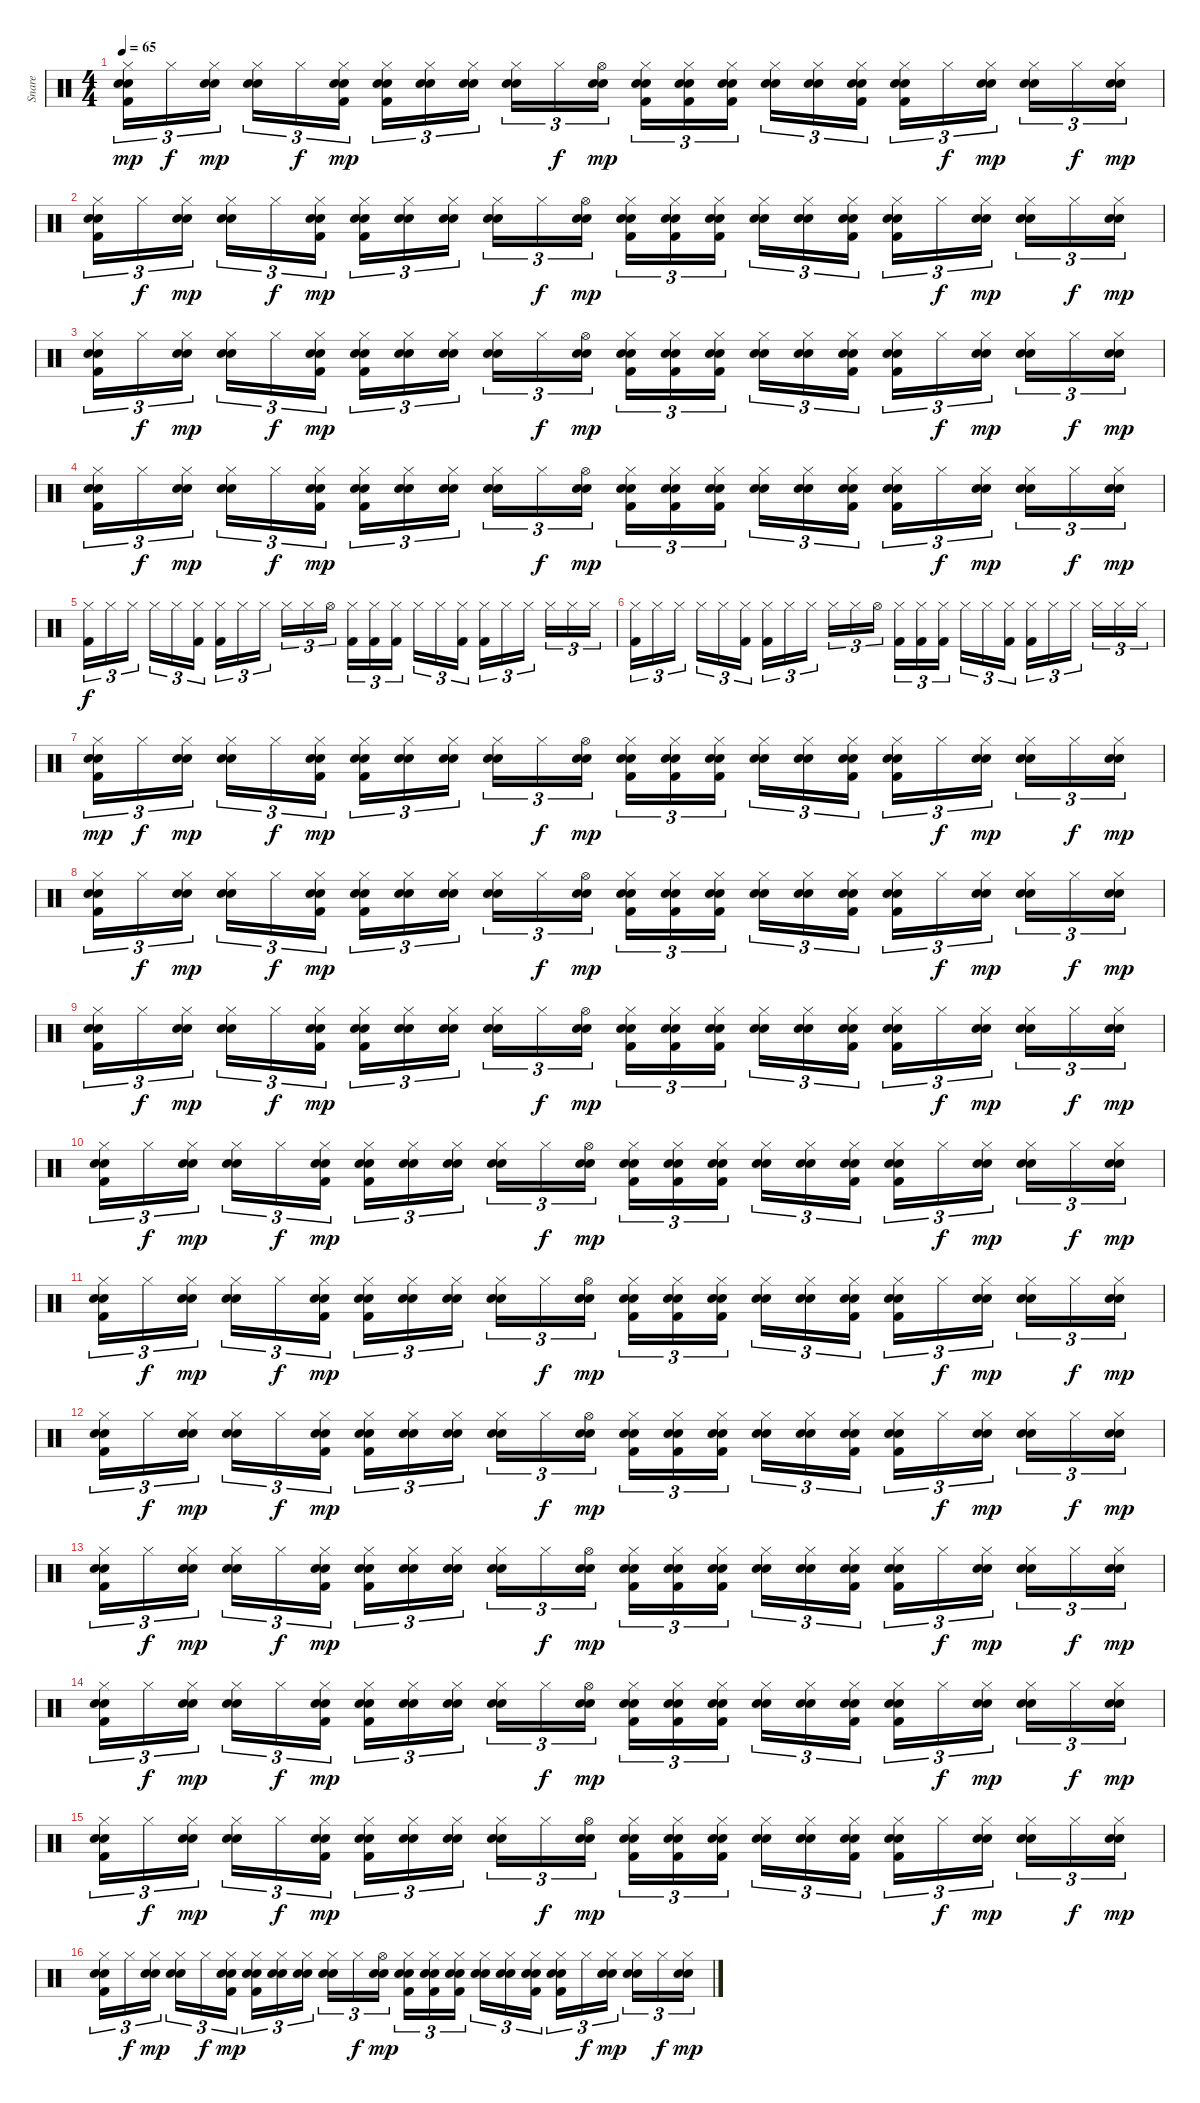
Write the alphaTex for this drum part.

\track ("Snare" "Snare") {instrument percussion}
\staff {score}
\articulation defaults
\ts (4 4)
\tempo 65
\clef neutral
\ks c
("Hi-Hat (closed)" "Snare (hit) 2" "Electric Snare (hit)" "Kick (hit) 2").16{tu (3 2) dy mp} "Hi-Hat (closed)".16{tu (3 2) dy f} ("Hi-Hat (closed)" "Snare (hit) 2" "Electric Snare (hit)").16{tu (3 2) dy mp} ("Hi-Hat (closed)" "Snare (hit) 2" "Electric Snare (hit)").16{tu (3 2)} "Hi-Hat (closed)".16{tu (3 2) dy f} ("Hi-Hat (closed)" "Snare (hit) 2" "Electric Snare (hit)" "Kick (hit) 2").16{tu (3 2) dy mp} ("Hi-Hat (closed)" "Snare (hit) 2" "Electric Snare (hit)" "Kick (hit) 2").16{tu (3 2)} ("Hi-Hat (closed)" "Snare (hit) 2" "Electric Snare (hit)").16{tu (3 2)} ("Hi-Hat (closed)" "Snare (hit) 2" "Electric Snare (hit)").16{tu (3 2)} ("Hi-Hat (closed)" "Snare (hit) 2" "Electric Snare (hit)").16{tu (3 2)} "Hi-Hat (closed)".16{tu (3 2) dy f} ("Hi-Hat (open)" "Snare (hit) 2" "Electric Snare (hit)").16{tu (3 2) dy mp} ("Hi-Hat (closed)" "Snare (hit) 2" "Electric Snare (hit)" "Kick (hit) 2").16{tu (3 2)} ("Hi-Hat (closed)" "Snare (hit) 2" "Electric Snare (hit)" "Kick (hit) 2").16{tu (3 2)} ("Hi-Hat (closed)" "Snare (hit) 2" "Electric Snare (hit)" "Kick (hit) 2").16{tu (3 2)} ("Hi-Hat (closed)" "Snare (hit) 2" "Electric Snare (hit)").16{tu (3 2)} ("Hi-Hat (closed)" "Snare (hit) 2" "Electric Snare (hit)").16{tu (3 2)} ("Hi-Hat (closed)" "Snare (hit) 2" "Electric Snare (hit)" "Kick (hit) 2").16{tu (3 2)} ("Hi-Hat (closed)" "Snare (hit) 2" "Electric Snare (hit)" "Kick (hit) 2").16{tu (3 2)} "Hi-Hat (closed)".16{tu (3 2) dy f} ("Hi-Hat (closed)" "Snare (hit) 2" "Electric Snare (hit)").16{tu (3 2) dy mp} ("Hi-Hat (closed)" "Snare (hit) 2" "Electric Snare (hit)").16{tu (3 2)} "Hi-Hat (closed)".16{tu (3 2) dy f} ("Hi-Hat (closed)" "Snare (hit) 2" "Electric Snare (hit)").16{tu (3 2) dy mp} |
("Hi-Hat (closed)" "Snare (hit) 2" "Electric Snare (hit)" "Kick (hit) 2").16{tu (3 2)} "Hi-Hat (closed)".16{tu (3 2) dy f} ("Hi-Hat (closed)" "Snare (hit) 2" "Electric Snare (hit)").16{tu (3 2) dy mp} ("Hi-Hat (closed)" "Snare (hit) 2" "Electric Snare (hit)").16{tu (3 2)} "Hi-Hat (closed)".16{tu (3 2) dy f} ("Hi-Hat (closed)" "Snare (hit) 2" "Electric Snare (hit)" "Kick (hit) 2").16{tu (3 2) dy mp} ("Hi-Hat (closed)" "Snare (hit) 2" "Electric Snare (hit)" "Kick (hit) 2").16{tu (3 2)} ("Hi-Hat (closed)" "Snare (hit) 2" "Electric Snare (hit)").16{tu (3 2)} ("Hi-Hat (closed)" "Snare (hit) 2" "Electric Snare (hit)").16{tu (3 2)} ("Hi-Hat (closed)" "Snare (hit) 2" "Electric Snare (hit)").16{tu (3 2)} "Hi-Hat (closed)".16{tu (3 2) dy f} ("Hi-Hat (open)" "Snare (hit) 2" "Electric Snare (hit)").16{tu (3 2) dy mp} ("Hi-Hat (closed)" "Snare (hit) 2" "Electric Snare (hit)" "Kick (hit) 2").16{tu (3 2)} ("Hi-Hat (closed)" "Snare (hit) 2" "Electric Snare (hit)" "Kick (hit) 2").16{tu (3 2)} ("Hi-Hat (closed)" "Snare (hit) 2" "Electric Snare (hit)" "Kick (hit) 2").16{tu (3 2)} ("Hi-Hat (closed)" "Snare (hit) 2" "Electric Snare (hit)").16{tu (3 2)} ("Hi-Hat (closed)" "Snare (hit) 2" "Electric Snare (hit)").16{tu (3 2)} ("Hi-Hat (closed)" "Snare (hit) 2" "Electric Snare (hit)" "Kick (hit) 2").16{tu (3 2)} ("Hi-Hat (closed)" "Snare (hit) 2" "Electric Snare (hit)" "Kick (hit) 2").16{tu (3 2)} "Hi-Hat (closed)".16{tu (3 2) dy f} ("Hi-Hat (closed)" "Snare (hit) 2" "Electric Snare (hit)").16{tu (3 2) dy mp} ("Hi-Hat (closed)" "Snare (hit) 2" "Electric Snare (hit)").16{tu (3 2)} "Hi-Hat (closed)".16{tu (3 2) dy f} ("Hi-Hat (closed)" "Snare (hit) 2" "Electric Snare (hit)").16{tu (3 2) dy mp} |
("Hi-Hat (closed)" "Snare (hit) 2" "Electric Snare (hit)" "Kick (hit) 2").16{tu (3 2)} "Hi-Hat (closed)".16{tu (3 2) dy f} ("Hi-Hat (closed)" "Snare (hit) 2" "Electric Snare (hit)").16{tu (3 2) dy mp} ("Hi-Hat (closed)" "Snare (hit) 2" "Electric Snare (hit)").16{tu (3 2)} "Hi-Hat (closed)".16{tu (3 2) dy f} ("Hi-Hat (closed)" "Snare (hit) 2" "Electric Snare (hit)" "Kick (hit) 2").16{tu (3 2) dy mp} ("Hi-Hat (closed)" "Snare (hit) 2" "Electric Snare (hit)" "Kick (hit) 2").16{tu (3 2)} ("Hi-Hat (closed)" "Snare (hit) 2" "Electric Snare (hit)").16{tu (3 2)} ("Hi-Hat (closed)" "Snare (hit) 2" "Electric Snare (hit)").16{tu (3 2)} ("Hi-Hat (closed)" "Snare (hit) 2" "Electric Snare (hit)").16{tu (3 2)} "Hi-Hat (closed)".16{tu (3 2) dy f} ("Hi-Hat (open)" "Snare (hit) 2" "Electric Snare (hit)").16{tu (3 2) dy mp} ("Hi-Hat (closed)" "Snare (hit) 2" "Electric Snare (hit)" "Kick (hit) 2").16{tu (3 2)} ("Hi-Hat (closed)" "Snare (hit) 2" "Electric Snare (hit)" "Kick (hit) 2").16{tu (3 2)} ("Hi-Hat (closed)" "Snare (hit) 2" "Electric Snare (hit)" "Kick (hit) 2").16{tu (3 2)} ("Hi-Hat (closed)" "Snare (hit) 2" "Electric Snare (hit)").16{tu (3 2)} ("Hi-Hat (closed)" "Snare (hit) 2" "Electric Snare (hit)").16{tu (3 2)} ("Hi-Hat (closed)" "Snare (hit) 2" "Electric Snare (hit)" "Kick (hit) 2").16{tu (3 2)} ("Hi-Hat (closed)" "Snare (hit) 2" "Electric Snare (hit)" "Kick (hit) 2").16{tu (3 2)} "Hi-Hat (closed)".16{tu (3 2) dy f} ("Hi-Hat (closed)" "Snare (hit) 2" "Electric Snare (hit)").16{tu (3 2) dy mp} ("Hi-Hat (closed)" "Snare (hit) 2" "Electric Snare (hit)").16{tu (3 2)} "Hi-Hat (closed)".16{tu (3 2) dy f} ("Hi-Hat (closed)" "Snare (hit) 2" "Electric Snare (hit)").16{tu (3 2) dy mp} |
("Hi-Hat (closed)" "Snare (hit) 2" "Electric Snare (hit)" "Kick (hit) 2").16{tu (3 2)} "Hi-Hat (closed)".16{tu (3 2) dy f} ("Hi-Hat (closed)" "Snare (hit) 2" "Electric Snare (hit)").16{tu (3 2) dy mp} ("Hi-Hat (closed)" "Snare (hit) 2" "Electric Snare (hit)").16{tu (3 2)} "Hi-Hat (closed)".16{tu (3 2) dy f} ("Hi-Hat (closed)" "Snare (hit) 2" "Electric Snare (hit)" "Kick (hit) 2").16{tu (3 2) dy mp} ("Hi-Hat (closed)" "Snare (hit) 2" "Electric Snare (hit)" "Kick (hit) 2").16{tu (3 2)} ("Hi-Hat (closed)" "Snare (hit) 2" "Electric Snare (hit)").16{tu (3 2)} ("Hi-Hat (closed)" "Snare (hit) 2" "Electric Snare (hit)").16{tu (3 2)} ("Hi-Hat (closed)" "Snare (hit) 2" "Electric Snare (hit)").16{tu (3 2)} "Hi-Hat (closed)".16{tu (3 2) dy f} ("Hi-Hat (open)" "Snare (hit) 2" "Electric Snare (hit)").16{tu (3 2) dy mp} ("Hi-Hat (closed)" "Snare (hit) 2" "Electric Snare (hit)" "Kick (hit) 2").16{tu (3 2)} ("Hi-Hat (closed)" "Snare (hit) 2" "Electric Snare (hit)" "Kick (hit) 2").16{tu (3 2)} ("Hi-Hat (closed)" "Snare (hit) 2" "Electric Snare (hit)" "Kick (hit) 2").16{tu (3 2)} ("Hi-Hat (closed)" "Snare (hit) 2" "Electric Snare (hit)").16{tu (3 2)} ("Hi-Hat (closed)" "Snare (hit) 2" "Electric Snare (hit)").16{tu (3 2)} ("Hi-Hat (closed)" "Snare (hit) 2" "Electric Snare (hit)" "Kick (hit) 2").16{tu (3 2)} ("Hi-Hat (closed)" "Snare (hit) 2" "Electric Snare (hit)" "Kick (hit) 2").16{tu (3 2)} "Hi-Hat (closed)".16{tu (3 2) dy f} ("Hi-Hat (closed)" "Snare (hit) 2" "Electric Snare (hit)").16{tu (3 2) dy mp} ("Hi-Hat (closed)" "Snare (hit) 2" "Electric Snare (hit)").16{tu (3 2)} "Hi-Hat (closed)".16{tu (3 2) dy f} ("Hi-Hat (closed)" "Snare (hit) 2" "Electric Snare (hit)").16{tu (3 2) dy mp} |
("Hi-Hat (closed)" "Kick (hit) 2").16{tu (3 2) dy f} "Hi-Hat (closed)".16{tu (3 2)} "Hi-Hat (closed)".16{tu (3 2)} "Hi-Hat (closed)".16{tu (3 2)} "Hi-Hat (closed)".16{tu (3 2)} ("Hi-Hat (closed)" "Kick (hit) 2").16{tu (3 2)} ("Hi-Hat (closed)" "Kick (hit) 2").16{tu (3 2)} "Hi-Hat (closed)".16{tu (3 2)} "Hi-Hat (closed)".16{tu (3 2)} "Hi-Hat (closed)".16{tu (3 2)} "Hi-Hat (closed)".16{tu (3 2)} "Hi-Hat (open)".16{tu (3 2)} ("Hi-Hat (closed)" "Kick (hit) 2").16{tu (3 2)} ("Hi-Hat (closed)" "Kick (hit) 2").16{tu (3 2)} ("Hi-Hat (closed)" "Kick (hit) 2").16{tu (3 2)} "Hi-Hat (closed)".16{tu (3 2)} "Hi-Hat (closed)".16{tu (3 2)} ("Hi-Hat (closed)" "Kick (hit) 2").16{tu (3 2)} ("Hi-Hat (closed)" "Kick (hit) 2").16{tu (3 2)} "Hi-Hat (closed)".16{tu (3 2)} "Hi-Hat (closed)".16{tu (3 2)} "Hi-Hat (closed)".16{tu (3 2)} "Hi-Hat (closed)".16{tu (3 2)} "Hi-Hat (closed)".16{tu (3 2)} |
("Hi-Hat (closed)" "Kick (hit) 2").16{tu (3 2)} "Hi-Hat (closed)".16{tu (3 2)} "Hi-Hat (closed)".16{tu (3 2)} "Hi-Hat (closed)".16{tu (3 2)} "Hi-Hat (closed)".16{tu (3 2)} ("Hi-Hat (closed)" "Kick (hit) 2").16{tu (3 2)} ("Hi-Hat (closed)" "Kick (hit) 2").16{tu (3 2)} "Hi-Hat (closed)".16{tu (3 2)} "Hi-Hat (closed)".16{tu (3 2)} "Hi-Hat (closed)".16{tu (3 2)} "Hi-Hat (closed)".16{tu (3 2)} "Hi-Hat (open)".16{tu (3 2)} ("Hi-Hat (closed)" "Kick (hit) 2").16{tu (3 2)} ("Hi-Hat (closed)" "Kick (hit) 2").16{tu (3 2)} ("Hi-Hat (closed)" "Kick (hit) 2").16{tu (3 2)} "Hi-Hat (closed)".16{tu (3 2)} "Hi-Hat (closed)".16{tu (3 2)} ("Hi-Hat (closed)" "Kick (hit) 2").16{tu (3 2)} ("Hi-Hat (closed)" "Kick (hit) 2").16{tu (3 2)} "Hi-Hat (closed)".16{tu (3 2)} "Hi-Hat (closed)".16{tu (3 2)} "Hi-Hat (closed)".16{tu (3 2)} "Hi-Hat (closed)".16{tu (3 2)} "Hi-Hat (closed)".16{tu (3 2)} |
("Hi-Hat (closed)" "Snare (hit) 2" "Electric Snare (hit)" "Kick (hit) 2").16{tu (3 2) dy mp} "Hi-Hat (closed)".16{tu (3 2) dy f} ("Hi-Hat (closed)" "Snare (hit) 2" "Electric Snare (hit)").16{tu (3 2) dy mp} ("Hi-Hat (closed)" "Snare (hit) 2" "Electric Snare (hit)").16{tu (3 2)} "Hi-Hat (closed)".16{tu (3 2) dy f} ("Hi-Hat (closed)" "Snare (hit) 2" "Electric Snare (hit)" "Kick (hit) 2").16{tu (3 2) dy mp} ("Hi-Hat (closed)" "Snare (hit) 2" "Electric Snare (hit)" "Kick (hit) 2").16{tu (3 2)} ("Hi-Hat (closed)" "Snare (hit) 2" "Electric Snare (hit)").16{tu (3 2)} ("Hi-Hat (closed)" "Snare (hit) 2" "Electric Snare (hit)").16{tu (3 2)} ("Hi-Hat (closed)" "Snare (hit) 2" "Electric Snare (hit)").16{tu (3 2)} "Hi-Hat (closed)".16{tu (3 2) dy f} ("Hi-Hat (open)" "Snare (hit) 2" "Electric Snare (hit)").16{tu (3 2) dy mp} ("Hi-Hat (closed)" "Snare (hit) 2" "Electric Snare (hit)" "Kick (hit) 2").16{tu (3 2)} ("Hi-Hat (closed)" "Snare (hit) 2" "Electric Snare (hit)" "Kick (hit) 2").16{tu (3 2)} ("Hi-Hat (closed)" "Snare (hit) 2" "Electric Snare (hit)" "Kick (hit) 2").16{tu (3 2)} ("Hi-Hat (closed)" "Snare (hit) 2" "Electric Snare (hit)").16{tu (3 2)} ("Hi-Hat (closed)" "Snare (hit) 2" "Electric Snare (hit)").16{tu (3 2)} ("Hi-Hat (closed)" "Snare (hit) 2" "Electric Snare (hit)" "Kick (hit) 2").16{tu (3 2)} ("Hi-Hat (closed)" "Snare (hit) 2" "Electric Snare (hit)" "Kick (hit) 2").16{tu (3 2)} "Hi-Hat (closed)".16{tu (3 2) dy f} ("Hi-Hat (closed)" "Snare (hit) 2" "Electric Snare (hit)").16{tu (3 2) dy mp} ("Hi-Hat (closed)" "Snare (hit) 2" "Electric Snare (hit)").16{tu (3 2)} "Hi-Hat (closed)".16{tu (3 2) dy f} ("Hi-Hat (closed)" "Snare (hit) 2" "Electric Snare (hit)").16{tu (3 2) dy mp} |
("Hi-Hat (closed)" "Snare (hit) 2" "Electric Snare (hit)" "Kick (hit) 2").16{tu (3 2)} "Hi-Hat (closed)".16{tu (3 2) dy f} ("Hi-Hat (closed)" "Snare (hit) 2" "Electric Snare (hit)").16{tu (3 2) dy mp} ("Hi-Hat (closed)" "Snare (hit) 2" "Electric Snare (hit)").16{tu (3 2)} "Hi-Hat (closed)".16{tu (3 2) dy f} ("Hi-Hat (closed)" "Snare (hit) 2" "Electric Snare (hit)" "Kick (hit) 2").16{tu (3 2) dy mp} ("Hi-Hat (closed)" "Snare (hit) 2" "Electric Snare (hit)" "Kick (hit) 2").16{tu (3 2)} ("Hi-Hat (closed)" "Snare (hit) 2" "Electric Snare (hit)").16{tu (3 2)} ("Hi-Hat (closed)" "Snare (hit) 2" "Electric Snare (hit)").16{tu (3 2)} ("Hi-Hat (closed)" "Snare (hit) 2" "Electric Snare (hit)").16{tu (3 2)} "Hi-Hat (closed)".16{tu (3 2) dy f} ("Hi-Hat (open)" "Snare (hit) 2" "Electric Snare (hit)").16{tu (3 2) dy mp} ("Hi-Hat (closed)" "Snare (hit) 2" "Electric Snare (hit)" "Kick (hit) 2").16{tu (3 2)} ("Hi-Hat (closed)" "Snare (hit) 2" "Electric Snare (hit)" "Kick (hit) 2").16{tu (3 2)} ("Hi-Hat (closed)" "Snare (hit) 2" "Electric Snare (hit)" "Kick (hit) 2").16{tu (3 2)} ("Hi-Hat (closed)" "Snare (hit) 2" "Electric Snare (hit)").16{tu (3 2)} ("Hi-Hat (closed)" "Snare (hit) 2" "Electric Snare (hit)").16{tu (3 2)} ("Hi-Hat (closed)" "Snare (hit) 2" "Electric Snare (hit)" "Kick (hit) 2").16{tu (3 2)} ("Hi-Hat (closed)" "Snare (hit) 2" "Electric Snare (hit)" "Kick (hit) 2").16{tu (3 2)} "Hi-Hat (closed)".16{tu (3 2) dy f} ("Hi-Hat (closed)" "Snare (hit) 2" "Electric Snare (hit)").16{tu (3 2) dy mp} ("Hi-Hat (closed)" "Snare (hit) 2" "Electric Snare (hit)").16{tu (3 2)} "Hi-Hat (closed)".16{tu (3 2) dy f} ("Hi-Hat (closed)" "Snare (hit) 2" "Electric Snare (hit)").16{tu (3 2) dy mp} |
("Hi-Hat (closed)" "Snare (hit) 2" "Electric Snare (hit)" "Kick (hit) 2").16{tu (3 2)} "Hi-Hat (closed)".16{tu (3 2) dy f} ("Hi-Hat (closed)" "Snare (hit) 2" "Electric Snare (hit)").16{tu (3 2) dy mp} ("Hi-Hat (closed)" "Snare (hit) 2" "Electric Snare (hit)").16{tu (3 2)} "Hi-Hat (closed)".16{tu (3 2) dy f} ("Hi-Hat (closed)" "Snare (hit) 2" "Electric Snare (hit)" "Kick (hit) 2").16{tu (3 2) dy mp} ("Hi-Hat (closed)" "Snare (hit) 2" "Electric Snare (hit)" "Kick (hit) 2").16{tu (3 2)} ("Hi-Hat (closed)" "Snare (hit) 2" "Electric Snare (hit)").16{tu (3 2)} ("Hi-Hat (closed)" "Snare (hit) 2" "Electric Snare (hit)").16{tu (3 2)} ("Hi-Hat (closed)" "Snare (hit) 2" "Electric Snare (hit)").16{tu (3 2)} "Hi-Hat (closed)".16{tu (3 2) dy f} ("Hi-Hat (open)" "Snare (hit) 2" "Electric Snare (hit)").16{tu (3 2) dy mp} ("Hi-Hat (closed)" "Snare (hit) 2" "Electric Snare (hit)" "Kick (hit) 2").16{tu (3 2)} ("Hi-Hat (closed)" "Snare (hit) 2" "Electric Snare (hit)" "Kick (hit) 2").16{tu (3 2)} ("Hi-Hat (closed)" "Snare (hit) 2" "Electric Snare (hit)" "Kick (hit) 2").16{tu (3 2)} ("Hi-Hat (closed)" "Snare (hit) 2" "Electric Snare (hit)").16{tu (3 2)} ("Hi-Hat (closed)" "Snare (hit) 2" "Electric Snare (hit)").16{tu (3 2)} ("Hi-Hat (closed)" "Snare (hit) 2" "Electric Snare (hit)" "Kick (hit) 2").16{tu (3 2)} ("Hi-Hat (closed)" "Snare (hit) 2" "Electric Snare (hit)" "Kick (hit) 2").16{tu (3 2)} "Hi-Hat (closed)".16{tu (3 2) dy f} ("Hi-Hat (closed)" "Snare (hit) 2" "Electric Snare (hit)").16{tu (3 2) dy mp} ("Hi-Hat (closed)" "Snare (hit) 2" "Electric Snare (hit)").16{tu (3 2)} "Hi-Hat (closed)".16{tu (3 2) dy f} ("Hi-Hat (closed)" "Snare (hit) 2" "Electric Snare (hit)").16{tu (3 2) dy mp} |
("Hi-Hat (closed)" "Snare (hit) 2" "Electric Snare (hit)" "Kick (hit) 2").16{tu (3 2)} "Hi-Hat (closed)".16{tu (3 2) dy f} ("Hi-Hat (closed)" "Snare (hit) 2" "Electric Snare (hit)").16{tu (3 2) dy mp} ("Hi-Hat (closed)" "Snare (hit) 2" "Electric Snare (hit)").16{tu (3 2)} "Hi-Hat (closed)".16{tu (3 2) dy f} ("Hi-Hat (closed)" "Snare (hit) 2" "Electric Snare (hit)" "Kick (hit) 2").16{tu (3 2) dy mp} ("Hi-Hat (closed)" "Snare (hit) 2" "Electric Snare (hit)" "Kick (hit) 2").16{tu (3 2)} ("Hi-Hat (closed)" "Snare (hit) 2" "Electric Snare (hit)").16{tu (3 2)} ("Hi-Hat (closed)" "Snare (hit) 2" "Electric Snare (hit)").16{tu (3 2)} ("Hi-Hat (closed)" "Snare (hit) 2" "Electric Snare (hit)").16{tu (3 2)} "Hi-Hat (closed)".16{tu (3 2) dy f} ("Hi-Hat (open)" "Snare (hit) 2" "Electric Snare (hit)").16{tu (3 2) dy mp} ("Hi-Hat (closed)" "Snare (hit) 2" "Electric Snare (hit)" "Kick (hit) 2").16{tu (3 2)} ("Hi-Hat (closed)" "Snare (hit) 2" "Electric Snare (hit)" "Kick (hit) 2").16{tu (3 2)} ("Hi-Hat (closed)" "Snare (hit) 2" "Electric Snare (hit)" "Kick (hit) 2").16{tu (3 2)} ("Hi-Hat (closed)" "Snare (hit) 2" "Electric Snare (hit)").16{tu (3 2)} ("Hi-Hat (closed)" "Snare (hit) 2" "Electric Snare (hit)").16{tu (3 2)} ("Hi-Hat (closed)" "Snare (hit) 2" "Electric Snare (hit)" "Kick (hit) 2").16{tu (3 2)} ("Hi-Hat (closed)" "Snare (hit) 2" "Electric Snare (hit)" "Kick (hit) 2").16{tu (3 2)} "Hi-Hat (closed)".16{tu (3 2) dy f} ("Hi-Hat (closed)" "Snare (hit) 2" "Electric Snare (hit)").16{tu (3 2) dy mp} ("Hi-Hat (closed)" "Snare (hit) 2" "Electric Snare (hit)").16{tu (3 2)} "Hi-Hat (closed)".16{tu (3 2) dy f} ("Hi-Hat (closed)" "Snare (hit) 2" "Electric Snare (hit)").16{tu (3 2) dy mp} |
("Hi-Hat (closed)" "Snare (hit) 2" "Electric Snare (hit)" "Kick (hit) 2").16{tu (3 2)} "Hi-Hat (closed)".16{tu (3 2) dy f} ("Hi-Hat (closed)" "Snare (hit) 2" "Electric Snare (hit)").16{tu (3 2) dy mp} ("Hi-Hat (closed)" "Snare (hit) 2" "Electric Snare (hit)").16{tu (3 2)} "Hi-Hat (closed)".16{tu (3 2) dy f} ("Hi-Hat (closed)" "Snare (hit) 2" "Electric Snare (hit)" "Kick (hit) 2").16{tu (3 2) dy mp} ("Hi-Hat (closed)" "Snare (hit) 2" "Electric Snare (hit)" "Kick (hit) 2").16{tu (3 2)} ("Hi-Hat (closed)" "Snare (hit) 2" "Electric Snare (hit)").16{tu (3 2)} ("Hi-Hat (closed)" "Snare (hit) 2" "Electric Snare (hit)").16{tu (3 2)} ("Hi-Hat (closed)" "Snare (hit) 2" "Electric Snare (hit)").16{tu (3 2)} "Hi-Hat (closed)".16{tu (3 2) dy f} ("Hi-Hat (open)" "Snare (hit) 2" "Electric Snare (hit)").16{tu (3 2) dy mp} ("Hi-Hat (closed)" "Snare (hit) 2" "Electric Snare (hit)" "Kick (hit) 2").16{tu (3 2)} ("Hi-Hat (closed)" "Snare (hit) 2" "Electric Snare (hit)" "Kick (hit) 2").16{tu (3 2)} ("Hi-Hat (closed)" "Snare (hit) 2" "Electric Snare (hit)" "Kick (hit) 2").16{tu (3 2)} ("Hi-Hat (closed)" "Snare (hit) 2" "Electric Snare (hit)").16{tu (3 2)} ("Hi-Hat (closed)" "Snare (hit) 2" "Electric Snare (hit)").16{tu (3 2)} ("Hi-Hat (closed)" "Snare (hit) 2" "Electric Snare (hit)" "Kick (hit) 2").16{tu (3 2)} ("Hi-Hat (closed)" "Snare (hit) 2" "Electric Snare (hit)" "Kick (hit) 2").16{tu (3 2)} "Hi-Hat (closed)".16{tu (3 2) dy f} ("Hi-Hat (closed)" "Snare (hit) 2" "Electric Snare (hit)").16{tu (3 2) dy mp} ("Hi-Hat (closed)" "Snare (hit) 2" "Electric Snare (hit)").16{tu (3 2)} "Hi-Hat (closed)".16{tu (3 2) dy f} ("Hi-Hat (closed)" "Snare (hit) 2" "Electric Snare (hit)").16{tu (3 2) dy mp} |
("Hi-Hat (closed)" "Snare (hit) 2" "Electric Snare (hit)" "Kick (hit) 2").16{tu (3 2)} "Hi-Hat (closed)".16{tu (3 2) dy f} ("Hi-Hat (closed)" "Snare (hit) 2" "Electric Snare (hit)").16{tu (3 2) dy mp} ("Hi-Hat (closed)" "Snare (hit) 2" "Electric Snare (hit)").16{tu (3 2)} "Hi-Hat (closed)".16{tu (3 2) dy f} ("Hi-Hat (closed)" "Snare (hit) 2" "Electric Snare (hit)" "Kick (hit) 2").16{tu (3 2) dy mp} ("Hi-Hat (closed)" "Snare (hit) 2" "Electric Snare (hit)" "Kick (hit) 2").16{tu (3 2)} ("Hi-Hat (closed)" "Snare (hit) 2" "Electric Snare (hit)").16{tu (3 2)} ("Hi-Hat (closed)" "Snare (hit) 2" "Electric Snare (hit)").16{tu (3 2)} ("Hi-Hat (closed)" "Snare (hit) 2" "Electric Snare (hit)").16{tu (3 2)} "Hi-Hat (closed)".16{tu (3 2) dy f} ("Hi-Hat (open)" "Snare (hit) 2" "Electric Snare (hit)").16{tu (3 2) dy mp} ("Hi-Hat (closed)" "Snare (hit) 2" "Electric Snare (hit)" "Kick (hit) 2").16{tu (3 2)} ("Hi-Hat (closed)" "Snare (hit) 2" "Electric Snare (hit)" "Kick (hit) 2").16{tu (3 2)} ("Hi-Hat (closed)" "Snare (hit) 2" "Electric Snare (hit)" "Kick (hit) 2").16{tu (3 2)} ("Hi-Hat (closed)" "Snare (hit) 2" "Electric Snare (hit)").16{tu (3 2)} ("Hi-Hat (closed)" "Snare (hit) 2" "Electric Snare (hit)").16{tu (3 2)} ("Hi-Hat (closed)" "Snare (hit) 2" "Electric Snare (hit)" "Kick (hit) 2").16{tu (3 2)} ("Hi-Hat (closed)" "Snare (hit) 2" "Electric Snare (hit)" "Kick (hit) 2").16{tu (3 2)} "Hi-Hat (closed)".16{tu (3 2) dy f} ("Hi-Hat (closed)" "Snare (hit) 2" "Electric Snare (hit)").16{tu (3 2) dy mp} ("Hi-Hat (closed)" "Snare (hit) 2" "Electric Snare (hit)").16{tu (3 2)} "Hi-Hat (closed)".16{tu (3 2) dy f} ("Hi-Hat (closed)" "Snare (hit) 2" "Electric Snare (hit)").16{tu (3 2) dy mp} |
("Hi-Hat (closed)" "Snare (hit) 2" "Electric Snare (hit)" "Kick (hit) 2").16{tu (3 2)} "Hi-Hat (closed)".16{tu (3 2) dy f} ("Hi-Hat (closed)" "Snare (hit) 2" "Electric Snare (hit)").16{tu (3 2) dy mp} ("Hi-Hat (closed)" "Snare (hit) 2" "Electric Snare (hit)").16{tu (3 2)} "Hi-Hat (closed)".16{tu (3 2) dy f} ("Hi-Hat (closed)" "Snare (hit) 2" "Electric Snare (hit)" "Kick (hit) 2").16{tu (3 2) dy mp} ("Hi-Hat (closed)" "Snare (hit) 2" "Electric Snare (hit)" "Kick (hit) 2").16{tu (3 2)} ("Hi-Hat (closed)" "Snare (hit) 2" "Electric Snare (hit)").16{tu (3 2)} ("Hi-Hat (closed)" "Snare (hit) 2" "Electric Snare (hit)").16{tu (3 2)} ("Hi-Hat (closed)" "Snare (hit) 2" "Electric Snare (hit)").16{tu (3 2)} "Hi-Hat (closed)".16{tu (3 2) dy f} ("Hi-Hat (open)" "Snare (hit) 2" "Electric Snare (hit)").16{tu (3 2) dy mp} ("Hi-Hat (closed)" "Snare (hit) 2" "Electric Snare (hit)" "Kick (hit) 2").16{tu (3 2)} ("Hi-Hat (closed)" "Snare (hit) 2" "Electric Snare (hit)" "Kick (hit) 2").16{tu (3 2)} ("Hi-Hat (closed)" "Snare (hit) 2" "Electric Snare (hit)" "Kick (hit) 2").16{tu (3 2)} ("Hi-Hat (closed)" "Snare (hit) 2" "Electric Snare (hit)").16{tu (3 2)} ("Hi-Hat (closed)" "Snare (hit) 2" "Electric Snare (hit)").16{tu (3 2)} ("Hi-Hat (closed)" "Snare (hit) 2" "Electric Snare (hit)" "Kick (hit) 2").16{tu (3 2)} ("Hi-Hat (closed)" "Snare (hit) 2" "Electric Snare (hit)" "Kick (hit) 2").16{tu (3 2)} "Hi-Hat (closed)".16{tu (3 2) dy f} ("Hi-Hat (closed)" "Snare (hit) 2" "Electric Snare (hit)").16{tu (3 2) dy mp} ("Hi-Hat (closed)" "Snare (hit) 2" "Electric Snare (hit)").16{tu (3 2)} "Hi-Hat (closed)".16{tu (3 2) dy f} ("Hi-Hat (closed)" "Snare (hit) 2" "Electric Snare (hit)").16{tu (3 2) dy mp} |
("Hi-Hat (closed)" "Snare (hit) 2" "Electric Snare (hit)" "Kick (hit) 2").16{tu (3 2)} "Hi-Hat (closed)".16{tu (3 2) dy f} ("Hi-Hat (closed)" "Snare (hit) 2" "Electric Snare (hit)").16{tu (3 2) dy mp} ("Hi-Hat (closed)" "Snare (hit) 2" "Electric Snare (hit)").16{tu (3 2)} "Hi-Hat (closed)".16{tu (3 2) dy f} ("Hi-Hat (closed)" "Snare (hit) 2" "Electric Snare (hit)" "Kick (hit) 2").16{tu (3 2) dy mp} ("Hi-Hat (closed)" "Snare (hit) 2" "Electric Snare (hit)" "Kick (hit) 2").16{tu (3 2)} ("Hi-Hat (closed)" "Snare (hit) 2" "Electric Snare (hit)").16{tu (3 2)} ("Hi-Hat (closed)" "Snare (hit) 2" "Electric Snare (hit)").16{tu (3 2)} ("Hi-Hat (closed)" "Snare (hit) 2" "Electric Snare (hit)").16{tu (3 2)} "Hi-Hat (closed)".16{tu (3 2) dy f} ("Hi-Hat (open)" "Snare (hit) 2" "Electric Snare (hit)").16{tu (3 2) dy mp} ("Hi-Hat (closed)" "Snare (hit) 2" "Electric Snare (hit)" "Kick (hit) 2").16{tu (3 2)} ("Hi-Hat (closed)" "Snare (hit) 2" "Electric Snare (hit)" "Kick (hit) 2").16{tu (3 2)} ("Hi-Hat (closed)" "Snare (hit) 2" "Electric Snare (hit)" "Kick (hit) 2").16{tu (3 2)} ("Hi-Hat (closed)" "Snare (hit) 2" "Electric Snare (hit)").16{tu (3 2)} ("Hi-Hat (closed)" "Snare (hit) 2" "Electric Snare (hit)").16{tu (3 2)} ("Hi-Hat (closed)" "Snare (hit) 2" "Electric Snare (hit)" "Kick (hit) 2").16{tu (3 2)} ("Hi-Hat (closed)" "Snare (hit) 2" "Electric Snare (hit)" "Kick (hit) 2").16{tu (3 2)} "Hi-Hat (closed)".16{tu (3 2) dy f} ("Hi-Hat (closed)" "Snare (hit) 2" "Electric Snare (hit)").16{tu (3 2) dy mp} ("Hi-Hat (closed)" "Snare (hit) 2" "Electric Snare (hit)").16{tu (3 2)} "Hi-Hat (closed)".16{tu (3 2) dy f} ("Hi-Hat (closed)" "Snare (hit) 2" "Electric Snare (hit)").16{tu (3 2) dy mp} |
("Hi-Hat (closed)" "Snare (hit) 2" "Electric Snare (hit)" "Kick (hit) 2").16{tu (3 2)} "Hi-Hat (closed)".16{tu (3 2) dy f} ("Hi-Hat (closed)" "Snare (hit) 2" "Electric Snare (hit)").16{tu (3 2) dy mp} ("Hi-Hat (closed)" "Snare (hit) 2" "Electric Snare (hit)").16{tu (3 2)} "Hi-Hat (closed)".16{tu (3 2) dy f} ("Hi-Hat (closed)" "Snare (hit) 2" "Electric Snare (hit)" "Kick (hit) 2").16{tu (3 2) dy mp} ("Hi-Hat (closed)" "Snare (hit) 2" "Electric Snare (hit)" "Kick (hit) 2").16{tu (3 2)} ("Hi-Hat (closed)" "Snare (hit) 2" "Electric Snare (hit)").16{tu (3 2)} ("Hi-Hat (closed)" "Snare (hit) 2" "Electric Snare (hit)").16{tu (3 2)} ("Hi-Hat (closed)" "Snare (hit) 2" "Electric Snare (hit)").16{tu (3 2)} "Hi-Hat (closed)".16{tu (3 2) dy f} ("Hi-Hat (open)" "Snare (hit) 2" "Electric Snare (hit)").16{tu (3 2) dy mp} ("Hi-Hat (closed)" "Snare (hit) 2" "Electric Snare (hit)" "Kick (hit) 2").16{tu (3 2)} ("Hi-Hat (closed)" "Snare (hit) 2" "Electric Snare (hit)" "Kick (hit) 2").16{tu (3 2)} ("Hi-Hat (closed)" "Snare (hit) 2" "Electric Snare (hit)" "Kick (hit) 2").16{tu (3 2)} ("Hi-Hat (closed)" "Snare (hit) 2" "Electric Snare (hit)").16{tu (3 2)} ("Hi-Hat (closed)" "Snare (hit) 2" "Electric Snare (hit)").16{tu (3 2)} ("Hi-Hat (closed)" "Snare (hit) 2" "Electric Snare (hit)" "Kick (hit) 2").16{tu (3 2)} ("Hi-Hat (closed)" "Snare (hit) 2" "Electric Snare (hit)" "Kick (hit) 2").16{tu (3 2)} "Hi-Hat (closed)".16{tu (3 2) dy f} ("Hi-Hat (closed)" "Snare (hit) 2" "Electric Snare (hit)").16{tu (3 2) dy mp} ("Hi-Hat (closed)" "Snare (hit) 2" "Electric Snare (hit)").16{tu (3 2)} "Hi-Hat (closed)".16{tu (3 2) dy f} ("Hi-Hat (closed)" "Snare (hit) 2" "Electric Snare (hit)").16{tu (3 2) dy mp} |
("Hi-Hat (closed)" "Snare (hit) 2" "Electric Snare (hit)" "Kick (hit) 2").16{tu (3 2)} "Hi-Hat (closed)".16{tu (3 2) dy f} ("Hi-Hat (closed)" "Snare (hit) 2" "Electric Snare (hit)").16{tu (3 2) dy mp} ("Hi-Hat (closed)" "Snare (hit) 2" "Electric Snare (hit)").16{tu (3 2)} "Hi-Hat (closed)".16{tu (3 2) dy f} ("Hi-Hat (closed)" "Snare (hit) 2" "Electric Snare (hit)" "Kick (hit) 2").16{tu (3 2) dy mp} ("Hi-Hat (closed)" "Snare (hit) 2" "Electric Snare (hit)" "Kick (hit) 2").16{tu (3 2)} ("Hi-Hat (closed)" "Snare (hit) 2" "Electric Snare (hit)").16{tu (3 2)} ("Hi-Hat (closed)" "Snare (hit) 2" "Electric Snare (hit)").16{tu (3 2)} ("Hi-Hat (closed)" "Snare (hit) 2" "Electric Snare (hit)").16{tu (3 2)} "Hi-Hat (closed)".16{tu (3 2) dy f} ("Hi-Hat (open)" "Snare (hit) 2" "Electric Snare (hit)").16{tu (3 2) dy mp} ("Hi-Hat (closed)" "Snare (hit) 2" "Electric Snare (hit)" "Kick (hit) 2").16{tu (3 2)} ("Hi-Hat (closed)" "Snare (hit) 2" "Electric Snare (hit)" "Kick (hit) 2").16{tu (3 2)} ("Hi-Hat (closed)" "Snare (hit) 2" "Electric Snare (hit)" "Kick (hit) 2").16{tu (3 2)} ("Hi-Hat (closed)" "Snare (hit) 2" "Electric Snare (hit)").16{tu (3 2)} ("Hi-Hat (closed)" "Snare (hit) 2" "Electric Snare (hit)").16{tu (3 2)} ("Hi-Hat (closed)" "Snare (hit) 2" "Electric Snare (hit)" "Kick (hit) 2").16{tu (3 2)} ("Hi-Hat (closed)" "Snare (hit) 2" "Electric Snare (hit)" "Kick (hit) 2").16{tu (3 2)} "Hi-Hat (closed)".16{tu (3 2) dy f} ("Hi-Hat (closed)" "Snare (hit) 2" "Electric Snare (hit)").16{tu (3 2) dy mp} ("Hi-Hat (closed)" "Snare (hit) 2" "Electric Snare (hit)").16{tu (3 2)} "Hi-Hat (closed)".16{tu (3 2) dy f} ("Hi-Hat (closed)" "Snare (hit) 2" "Electric Snare (hit)").16{tu (3 2) dy mp}
